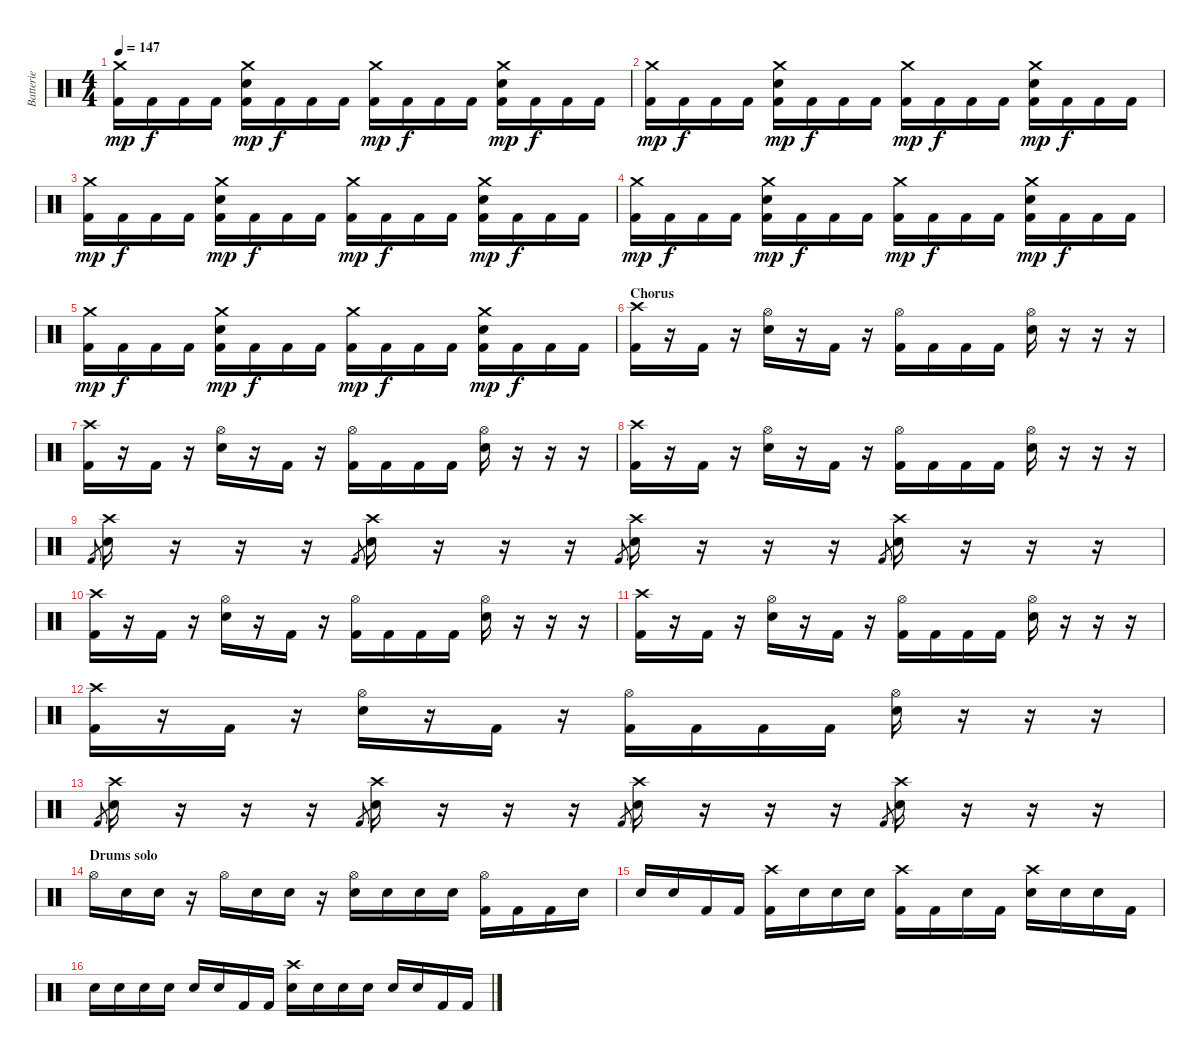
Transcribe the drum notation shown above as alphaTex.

\track ("Batterie" "Batterie") {instrument percussion}
\staff {score}
\articulation defaults
\ts (4 4)
\tempo 147
\clef neutral
\ks c
("Crash medium (hit)" "Kick (hit) 2").16{dy mp} "Kick (hit) 2".16{dy f} "Kick (hit) 2".16 "Kick (hit) 2".16 ("Crash medium (hit)" "Kick (hit) 2" "Electric Snare (hit)").16{dy mp} "Kick (hit) 2".16{dy f} "Kick (hit) 2".16 "Kick (hit) 2".16 ("Crash medium (hit)" "Kick (hit) 2").16{dy mp} "Kick (hit) 2".16{dy f} "Kick (hit) 2".16 "Kick (hit) 2".16 ("Crash medium (hit)" "Kick (hit) 2" "Electric Snare (hit)").16{dy mp} "Kick (hit) 2".16{dy f} "Kick (hit) 2".16 "Kick (hit) 2".16 |
("Crash medium (hit)" "Kick (hit) 2").16{dy mp} "Kick (hit) 2".16{dy f} "Kick (hit) 2".16 "Kick (hit) 2".16 ("Crash medium (hit)" "Kick (hit) 2" "Electric Snare (hit)").16{dy mp} "Kick (hit) 2".16{dy f} "Kick (hit) 2".16 "Kick (hit) 2".16 ("Crash medium (hit)" "Kick (hit) 2").16{dy mp} "Kick (hit) 2".16{dy f} "Kick (hit) 2".16 "Kick (hit) 2".16 ("Crash medium (hit)" "Kick (hit) 2" "Electric Snare (hit)").16{dy mp} "Kick (hit) 2".16{dy f} "Kick (hit) 2".16 "Kick (hit) 2".16 |
("Crash medium (hit)" "Kick (hit) 2").16{dy mp} "Kick (hit) 2".16{dy f} "Kick (hit) 2".16 "Kick (hit) 2".16 ("Crash medium (hit)" "Kick (hit) 2" "Electric Snare (hit)").16{dy mp} "Kick (hit) 2".16{dy f} "Kick (hit) 2".16 "Kick (hit) 2".16 ("Crash medium (hit)" "Kick (hit) 2").16{dy mp} "Kick (hit) 2".16{dy f} "Kick (hit) 2".16 "Kick (hit) 2".16 ("Crash medium (hit)" "Kick (hit) 2" "Electric Snare (hit)").16{dy mp} "Kick (hit) 2".16{dy f} "Kick (hit) 2".16 "Kick (hit) 2".16 |
("Crash medium (hit)" "Kick (hit) 2").16{dy mp} "Kick (hit) 2".16{dy f} "Kick (hit) 2".16 "Kick (hit) 2".16 ("Crash medium (hit)" "Kick (hit) 2" "Electric Snare (hit)").16{dy mp} "Kick (hit) 2".16{dy f} "Kick (hit) 2".16 "Kick (hit) 2".16 ("Crash medium (hit)" "Kick (hit) 2").16{dy mp} "Kick (hit) 2".16{dy f} "Kick (hit) 2".16 "Kick (hit) 2".16 ("Crash medium (hit)" "Kick (hit) 2" "Electric Snare (hit)").16{dy mp} "Kick (hit) 2".16{dy f} "Kick (hit) 2".16 "Kick (hit) 2".16 |
("Crash medium (hit)" "Kick (hit) 2").16{dy mp} "Kick (hit) 2".16{dy f} "Kick (hit) 2".16 "Kick (hit) 2".16 ("Crash medium (hit)" "Kick (hit) 2" "Electric Snare (hit)").16{dy mp} "Kick (hit) 2".16{dy f} "Kick (hit) 2".16 "Kick (hit) 2".16 ("Crash medium (hit)" "Kick (hit) 2").16{dy mp} "Kick (hit) 2".16{dy f} "Kick (hit) 2".16 "Kick (hit) 2".16 ("Crash medium (hit)" "Kick (hit) 2" "Electric Snare (hit)").16{dy mp} "Kick (hit) 2".16{dy f} "Kick (hit) 2".16 "Kick (hit) 2".16 |
\section ("" "Chorus")
("Crash high (hit)" "Kick (hit) 2").16 r.16 "Kick (hit) 2".16 r.16 ("Hi-Hat (open)" "Electric Snare (hit)").16 r.16 "Kick (hit) 2".16 r.16 ("Hi-Hat (open)" "Kick (hit) 2").16 "Kick (hit) 2".16 "Kick (hit) 2".16 "Kick (hit) 2".16 ("Hi-Hat (open)" "Electric Snare (hit)").16 r.16 r.16 r.16 |
("Crash high (hit)" "Kick (hit) 2").16 r.16 "Kick (hit) 2".16 r.16 ("Hi-Hat (open)" "Electric Snare (hit)").16 r.16 "Kick (hit) 2".16 r.16 ("Hi-Hat (open)" "Kick (hit) 2").16 "Kick (hit) 2".16 "Kick (hit) 2".16 "Kick (hit) 2".16 ("Hi-Hat (open)" "Electric Snare (hit)").16 r.16 r.16 r.16 |
("Crash high (hit)" "Kick (hit) 2").16 r.16 "Kick (hit) 2".16 r.16 ("Hi-Hat (open)" "Electric Snare (hit)").16 r.16 "Kick (hit) 2".16 r.16 ("Hi-Hat (open)" "Kick (hit) 2").16 "Kick (hit) 2".16 "Kick (hit) 2".16 "Kick (hit) 2".16 ("Hi-Hat (open)" "Electric Snare (hit)").16 r.16 r.16 r.16 |
"Kick (hit) 2".8{gr} ("Crash high (hit)" "Electric Snare (hit)").16 r.16 r.16 r.16 "Kick (hit) 2".8{gr} ("Crash high (hit)" "Electric Snare (hit)").16 r.16 r.16 r.16 "Kick (hit) 2".8{gr} ("Crash high (hit)" "Electric Snare (hit)").16 r.16 r.16 r.16 "Kick (hit) 2".8{gr} ("Crash high (hit)" "Electric Snare (hit)").16 r.16 r.16 r.16 |
("Crash high (hit)" "Kick (hit) 2").16 r.16 "Kick (hit) 2".16 r.16 ("Hi-Hat (open)" "Electric Snare (hit)").16 r.16 "Kick (hit) 2".16 r.16 ("Hi-Hat (open)" "Kick (hit) 2").16 "Kick (hit) 2".16 "Kick (hit) 2".16 "Kick (hit) 2".16 ("Hi-Hat (open)" "Electric Snare (hit)").16 r.16 r.16 r.16 |
("Crash high (hit)" "Kick (hit) 2").16 r.16 "Kick (hit) 2".16 r.16 ("Hi-Hat (open)" "Electric Snare (hit)").16 r.16 "Kick (hit) 2".16 r.16 ("Hi-Hat (open)" "Kick (hit) 2").16 "Kick (hit) 2".16 "Kick (hit) 2".16 "Kick (hit) 2".16 ("Hi-Hat (open)" "Electric Snare (hit)").16 r.16 r.16 r.16 |
("Crash high (hit)" "Kick (hit) 2").16 r.16 "Kick (hit) 2".16 r.16 ("Hi-Hat (open)" "Electric Snare (hit)").16 r.16 "Kick (hit) 2".16 r.16 ("Hi-Hat (open)" "Kick (hit) 2").16 "Kick (hit) 2".16 "Kick (hit) 2".16 "Kick (hit) 2".16 ("Hi-Hat (open)" "Electric Snare (hit)").16 r.16 r.16 r.16 |
"Kick (hit) 2".8{gr} ("Crash high (hit)" "Electric Snare (hit)").16 r.16 r.16 r.16 "Kick (hit) 2".8{gr} ("Crash high (hit)" "Electric Snare (hit)").16 r.16 r.16 r.16 "Kick (hit) 2".8{gr} ("Crash high (hit)" "Electric Snare (hit)").16 r.16 r.16 r.16 "Kick (hit) 2".8{gr} ("Crash high (hit)" "Electric Snare (hit)").16 r.16 r.16 r.16 |
\section ("" "Drums solo")
"Hi-Hat (open)".16 "Electric Snare (hit)".16 "Electric Snare (hit)".16 r.16 "Hi-Hat (open)".16 "Electric Snare (hit)".16 "Electric Snare (hit)".16 r.16 ("Hi-Hat (open)" "Electric Snare (hit)").16 "Electric Snare (hit)".16 "Electric Snare (hit)".16 "Electric Snare (hit)".16 ("Hi-Hat (open)" "Kick (hit) 2").16 "Kick (hit) 2".16 "Kick (hit) 2".16 "Electric Snare (hit)".16 |
"Electric Snare (hit)".16 "Electric Snare (hit)".16 "Kick (hit) 2".16 "Kick (hit) 2".16 ("Crash high (hit)" "Kick (hit) 2").16 "Electric Snare (hit)".16 "Electric Snare (hit)".16 "Electric Snare (hit)".16 ("Crash high (hit)" "Kick (hit) 2").16 "Kick (hit) 2".16 "Electric Snare (hit)".16 "Kick (hit) 2".16 ("Crash high (hit)" "Electric Snare (hit)").16 "Electric Snare (hit)".16 "Electric Snare (hit)".16 "Kick (hit) 2".16 |
"Electric Snare (hit)".16 "Electric Snare (hit)".16 "Electric Snare (hit)".16 "Electric Snare (hit)".16 "Electric Snare (hit)".16 "Electric Snare (hit)".16 "Kick (hit) 2".16 "Kick (hit) 2".16 ("Crash high (hit)" "Electric Snare (hit)").16 "Electric Snare (hit)".16 "Electric Snare (hit)".16 "Electric Snare (hit)".16 "Electric Snare (hit)".16 "Electric Snare (hit)".16 "Kick (hit) 2".16 "Kick (hit) 2".16
